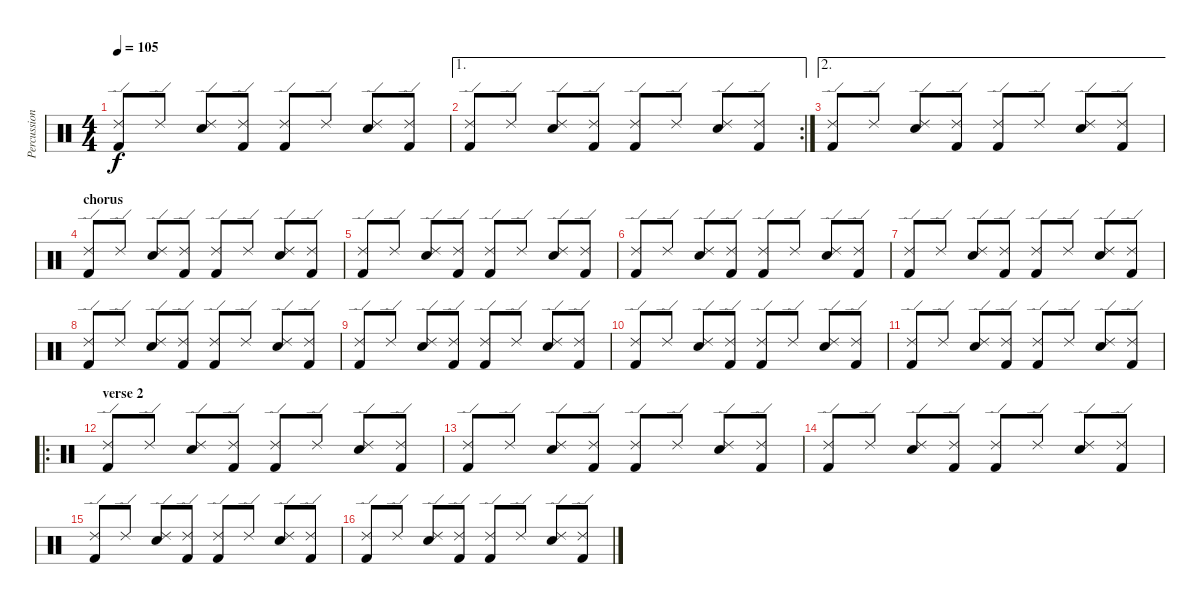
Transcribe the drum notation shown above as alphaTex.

\track ("Percussion" "Percussion") {instrument percussion}
\staff {score}
\articulation defaults
\ts (4 4)
\tempo 105
\clef neutral
\ks c
("Ride (edge) 2" "Kick (hit) 2").8{dy f} "Ride (edge) 2".8 ("Ride (edge) 2" "Electric Snare (hit)").8 ("Ride (edge) 2" "Kick (hit) 2").8 ("Ride (edge) 2" "Kick (hit) 2").8 "Ride (edge) 2".8 ("Ride (edge) 2" "Electric Snare (hit)").8 ("Ride (edge) 2" "Kick (hit) 2").8 |
\ae 1
\rc 2
("Ride (edge) 2" "Kick (hit) 2").8 "Ride (edge) 2".8 ("Ride (edge) 2" "Electric Snare (hit)").8 ("Ride (edge) 2" "Kick (hit) 2").8 ("Ride (edge) 2" "Kick (hit) 2").8 "Ride (edge) 2".8 ("Ride (edge) 2" "Electric Snare (hit)").8 ("Ride (edge) 2" "Kick (hit) 2").8 |
\ae 2
("Ride (edge) 2" "Kick (hit) 2").8 "Ride (edge) 2".8 ("Ride (edge) 2" "Electric Snare (hit)").8 ("Ride (edge) 2" "Kick (hit) 2").8 ("Ride (edge) 2" "Kick (hit) 2").8 "Ride (edge) 2".8 ("Ride (edge) 2" "Electric Snare (hit)").8 ("Ride (edge) 2" "Kick (hit) 2").8 |
\section ("" "chorus")
("Ride (edge) 2" "Kick (hit) 2").8 "Ride (edge) 2".8 ("Ride (edge) 2" "Electric Snare (hit)").8 ("Ride (edge) 2" "Kick (hit) 2").8 ("Ride (edge) 2" "Kick (hit) 2").8 "Ride (edge) 2".8 ("Ride (edge) 2" "Electric Snare (hit)").8 ("Ride (edge) 2" "Kick (hit) 2").8 |
("Ride (edge) 2" "Kick (hit) 2").8 "Ride (edge) 2".8 ("Ride (edge) 2" "Electric Snare (hit)").8 ("Ride (edge) 2" "Kick (hit) 2").8 ("Ride (edge) 2" "Kick (hit) 2").8 "Ride (edge) 2".8 ("Ride (edge) 2" "Electric Snare (hit)").8 ("Ride (edge) 2" "Kick (hit) 2").8 |
("Ride (edge) 2" "Kick (hit) 2").8 "Ride (edge) 2".8 ("Ride (edge) 2" "Electric Snare (hit)").8 ("Ride (edge) 2" "Kick (hit) 2").8 ("Ride (edge) 2" "Kick (hit) 2").8 "Ride (edge) 2".8 ("Ride (edge) 2" "Electric Snare (hit)").8 ("Ride (edge) 2" "Kick (hit) 2").8 |
("Ride (edge) 2" "Kick (hit) 2").8 "Ride (edge) 2".8 ("Ride (edge) 2" "Electric Snare (hit)").8 ("Ride (edge) 2" "Kick (hit) 2").8 ("Ride (edge) 2" "Kick (hit) 2").8 "Ride (edge) 2".8 ("Ride (edge) 2" "Electric Snare (hit)").8 ("Ride (edge) 2" "Kick (hit) 2").8 |
("Ride (edge) 2" "Kick (hit) 2").8 "Ride (edge) 2".8 ("Ride (edge) 2" "Electric Snare (hit)").8 ("Ride (edge) 2" "Kick (hit) 2").8 ("Ride (edge) 2" "Kick (hit) 2").8 "Ride (edge) 2".8 ("Ride (edge) 2" "Electric Snare (hit)").8 ("Ride (edge) 2" "Kick (hit) 2").8 |
("Ride (edge) 2" "Kick (hit) 2").8 "Ride (edge) 2".8 ("Ride (edge) 2" "Electric Snare (hit)").8 ("Ride (edge) 2" "Kick (hit) 2").8 ("Ride (edge) 2" "Kick (hit) 2").8 "Ride (edge) 2".8 ("Ride (edge) 2" "Electric Snare (hit)").8 ("Ride (edge) 2" "Kick (hit) 2").8 |
("Ride (edge) 2" "Kick (hit) 2").8 "Ride (edge) 2".8 ("Ride (edge) 2" "Electric Snare (hit)").8 ("Ride (edge) 2" "Kick (hit) 2").8 ("Ride (edge) 2" "Kick (hit) 2").8 "Ride (edge) 2".8 ("Ride (edge) 2" "Electric Snare (hit)").8 ("Ride (edge) 2" "Kick (hit) 2").8 |
("Ride (edge) 2" "Kick (hit) 2").8 "Ride (edge) 2".8 ("Ride (edge) 2" "Electric Snare (hit)").8 ("Ride (edge) 2" "Kick (hit) 2").8 ("Ride (edge) 2" "Kick (hit) 2").8 "Ride (edge) 2".8 ("Ride (edge) 2" "Electric Snare (hit)").8 ("Ride (edge) 2" "Kick (hit) 2").8 |
\ro
\section ("" "verse 2")
("Ride (edge) 2" "Kick (hit) 2").8 "Ride (edge) 2".8 ("Ride (edge) 2" "Electric Snare (hit)").8 ("Ride (edge) 2" "Kick (hit) 2").8 ("Ride (edge) 2" "Kick (hit) 2").8 "Ride (edge) 2".8 ("Ride (edge) 2" "Electric Snare (hit)").8 ("Ride (edge) 2" "Kick (hit) 2").8 |
("Ride (edge) 2" "Kick (hit) 2").8 "Ride (edge) 2".8 ("Ride (edge) 2" "Electric Snare (hit)").8 ("Ride (edge) 2" "Kick (hit) 2").8 ("Ride (edge) 2" "Kick (hit) 2").8 "Ride (edge) 2".8 ("Ride (edge) 2" "Electric Snare (hit)").8 ("Ride (edge) 2" "Kick (hit) 2").8 |
("Ride (edge) 2" "Kick (hit) 2").8 "Ride (edge) 2".8 ("Ride (edge) 2" "Electric Snare (hit)").8 ("Ride (edge) 2" "Kick (hit) 2").8 ("Ride (edge) 2" "Kick (hit) 2").8 "Ride (edge) 2".8 ("Ride (edge) 2" "Electric Snare (hit)").8 ("Ride (edge) 2" "Kick (hit) 2").8 |
("Ride (edge) 2" "Kick (hit) 2").8 "Ride (edge) 2".8 ("Ride (edge) 2" "Electric Snare (hit)").8 ("Ride (edge) 2" "Kick (hit) 2").8 ("Ride (edge) 2" "Kick (hit) 2").8 "Ride (edge) 2".8 ("Ride (edge) 2" "Electric Snare (hit)").8 ("Ride (edge) 2" "Kick (hit) 2").8 |
("Ride (edge) 2" "Kick (hit) 2").8 "Ride (edge) 2".8 ("Ride (edge) 2" "Electric Snare (hit)").8 ("Ride (edge) 2" "Kick (hit) 2").8 ("Ride (edge) 2" "Kick (hit) 2").8 "Ride (edge) 2".8 ("Ride (edge) 2" "Electric Snare (hit)").8 ("Ride (edge) 2" "Kick (hit) 2").8
